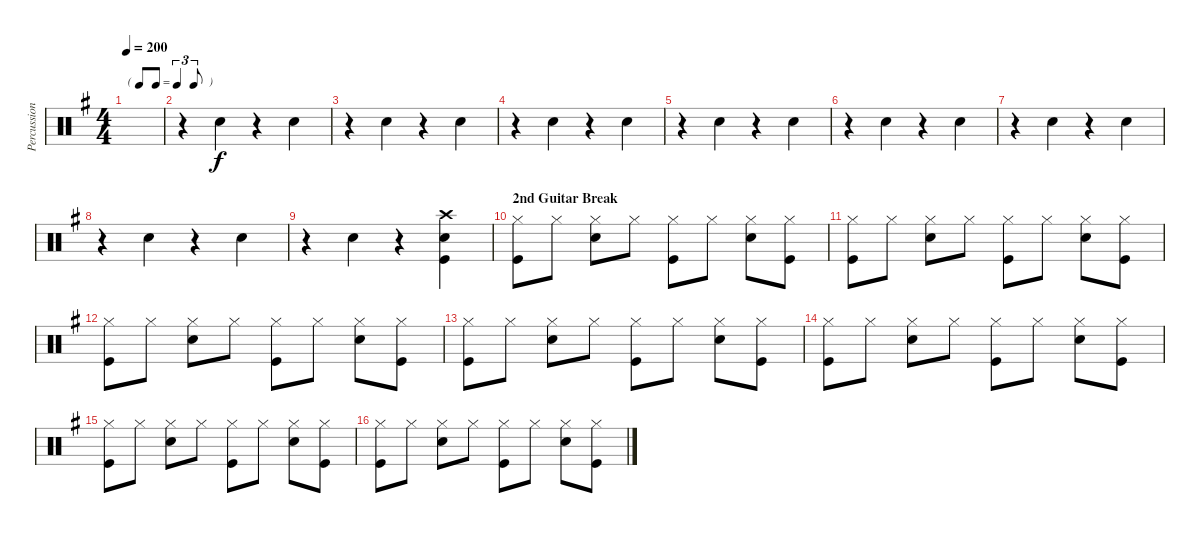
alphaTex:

\track ("Percussion" "Percussion") {instrument percussion}
\staff {score}
\articulation defaults
\ts (4 4)
\tf triplet8th
\tempo 200
\clef neutral
\ks g
|
r.4 "Hand Clap (hit)".4 r.4 "Hand Clap (hit)".4 |
r.4 "Hand Clap (hit)".4 r.4 "Hand Clap (hit)".4 |
r.4 "Hand Clap (hit)".4 r.4 "Hand Clap (hit)".4 |
r.4 "Hand Clap (hit)".4 r.4 "Hand Clap (hit)".4 |
r.4 "Hand Clap (hit)".4 r.4 "Hand Clap (hit)".4 |
r.4 "Hand Clap (hit)".4 r.4 "Hand Clap (hit)".4 |
r.4 "Hand Clap (hit)".4 r.4 "Hand Clap (hit)".4 |
r.4 "Hand Clap (hit)".4 r.4 ("Crash high (hit)" "Snare (hit) 2" "Kick (hit)").4 |
\section ("" "2nd Guitar Break")
("Hi-Hat (closed)" "Kick (hit)").8 "Hi-Hat (closed)".8 ("Hi-Hat (closed)" "Snare (hit) 2").8 "Hi-Hat (closed)".8 ("Hi-Hat (closed)" "Kick (hit)").8 "Hi-Hat (closed)".8 ("Hi-Hat (closed)" "Snare (hit) 2").8 ("Hi-Hat (closed)" "Kick (hit)").8 |
("Hi-Hat (closed)" "Kick (hit)").8 "Hi-Hat (closed)".8 ("Hi-Hat (closed)" "Snare (hit) 2").8 "Hi-Hat (closed)".8 ("Hi-Hat (closed)" "Kick (hit)").8 "Hi-Hat (closed)".8 ("Hi-Hat (closed)" "Snare (hit) 2").8 ("Hi-Hat (closed)" "Kick (hit)").8 |
("Hi-Hat (closed)" "Kick (hit)").8 "Hi-Hat (closed)".8 ("Hi-Hat (closed)" "Snare (hit) 2").8 "Hi-Hat (closed)".8 ("Hi-Hat (closed)" "Kick (hit)").8 "Hi-Hat (closed)".8 ("Hi-Hat (closed)" "Snare (hit) 2").8 ("Hi-Hat (closed)" "Kick (hit)").8 |
("Hi-Hat (closed)" "Kick (hit)").8 "Hi-Hat (closed)".8 ("Hi-Hat (closed)" "Snare (hit) 2").8 "Hi-Hat (closed)".8 ("Hi-Hat (closed)" "Kick (hit)").8 "Hi-Hat (closed)".8 ("Hi-Hat (closed)" "Snare (hit) 2").8 ("Hi-Hat (closed)" "Kick (hit)").8 |
("Hi-Hat (closed)" "Kick (hit)").8 "Hi-Hat (closed)".8 ("Hi-Hat (closed)" "Snare (hit) 2").8 "Hi-Hat (closed)".8 ("Hi-Hat (closed)" "Kick (hit)").8 "Hi-Hat (closed)".8 ("Hi-Hat (closed)" "Snare (hit) 2").8 ("Hi-Hat (closed)" "Kick (hit)").8 |
("Hi-Hat (closed)" "Kick (hit)").8 "Hi-Hat (closed)".8 ("Hi-Hat (closed)" "Snare (hit) 2").8 "Hi-Hat (closed)".8 ("Hi-Hat (closed)" "Kick (hit)").8 "Hi-Hat (closed)".8 ("Hi-Hat (closed)" "Snare (hit) 2").8 ("Hi-Hat (closed)" "Kick (hit)").8 |
("Hi-Hat (closed)" "Kick (hit)").8 "Hi-Hat (closed)".8 ("Hi-Hat (closed)" "Snare (hit) 2").8 "Hi-Hat (closed)".8 ("Hi-Hat (closed)" "Kick (hit)").8 "Hi-Hat (closed)".8 ("Hi-Hat (closed)" "Snare (hit) 2").8 ("Hi-Hat (closed)" "Kick (hit)").8
